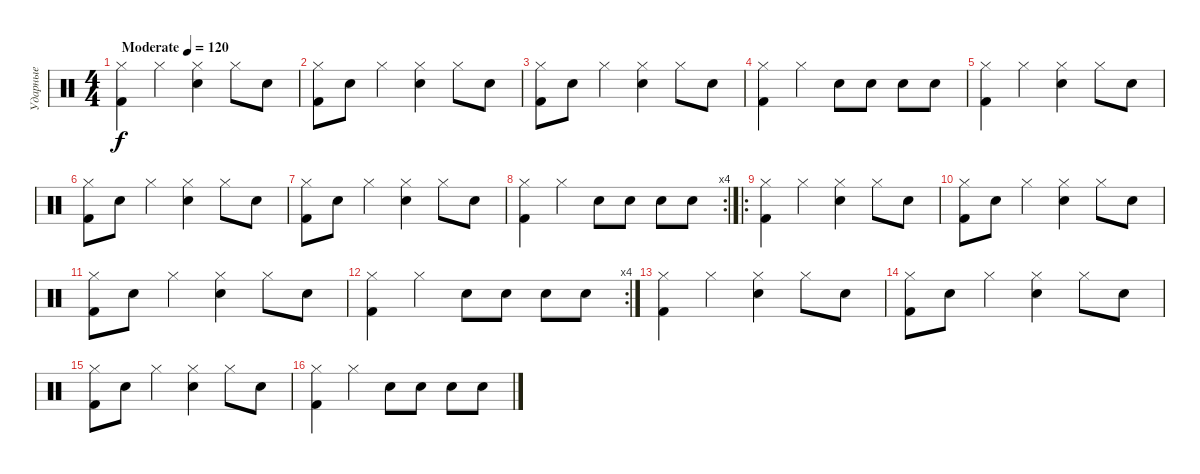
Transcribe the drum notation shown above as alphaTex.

\track ("Ударные" "Ударные") {instrument percussion}
\staff {score}
\articulation defaults
\ts (4 4)
\tempo (120 "Moderate")
\clef neutral
\ks c
("Kick (hit) 2" "Hi-Hat (closed)").4{dy f} "Hi-Hat (closed)".4 ("Electric Snare (hit)" "Hi-Hat (closed)").4 "Hi-Hat (closed)".8 "Electric Snare (hit)".8 |
("Kick (hit) 2" "Hi-Hat (closed)").8 "Electric Snare (hit)".8 "Hi-Hat (closed)".4 ("Hi-Hat (closed)" "Electric Snare (hit)").4 "Hi-Hat (closed)".8 "Electric Snare (hit)".8 |
("Kick (hit) 2" "Hi-Hat (closed)").8 "Electric Snare (hit)".8 "Hi-Hat (closed)".4 ("Hi-Hat (closed)" "Electric Snare (hit)").4 "Hi-Hat (closed)".8 "Electric Snare (hit)".8 |
("Kick (hit) 2" "Hi-Hat (closed)").4 "Hi-Hat (closed)".4 "Electric Snare (hit)".8 "Electric Snare (hit)".8 "Electric Snare (hit)".8 "Electric Snare (hit)".8 |
("Kick (hit) 2" "Hi-Hat (closed)").4 "Hi-Hat (closed)".4 ("Electric Snare (hit)" "Hi-Hat (closed)").4 "Hi-Hat (closed)".8 "Electric Snare (hit)".8 |
("Kick (hit) 2" "Hi-Hat (closed)").8 "Electric Snare (hit)".8 "Hi-Hat (closed)".4 ("Hi-Hat (closed)" "Electric Snare (hit)").4 "Hi-Hat (closed)".8 "Electric Snare (hit)".8 |
("Kick (hit) 2" "Hi-Hat (closed)").8 "Electric Snare (hit)".8 "Hi-Hat (closed)".4 ("Hi-Hat (closed)" "Electric Snare (hit)").4 "Hi-Hat (closed)".8 "Electric Snare (hit)".8 |
\rc 4
("Kick (hit) 2" "Hi-Hat (closed)").4 "Hi-Hat (closed)".4 "Electric Snare (hit)".8 "Electric Snare (hit)".8 "Electric Snare (hit)".8 "Electric Snare (hit)".8 |
\ro
("Kick (hit) 2" "Hi-Hat (closed)").4 "Hi-Hat (closed)".4 ("Electric Snare (hit)" "Hi-Hat (closed)").4 "Hi-Hat (closed)".8 "Electric Snare (hit)".8 |
("Kick (hit) 2" "Hi-Hat (closed)").8 "Electric Snare (hit)".8 "Hi-Hat (closed)".4 ("Hi-Hat (closed)" "Electric Snare (hit)").4 "Hi-Hat (closed)".8 "Electric Snare (hit)".8 |
("Kick (hit) 2" "Hi-Hat (closed)").8 "Electric Snare (hit)".8 "Hi-Hat (closed)".4 ("Hi-Hat (closed)" "Electric Snare (hit)").4 "Hi-Hat (closed)".8 "Electric Snare (hit)".8 |
\rc 4
("Kick (hit) 2" "Hi-Hat (closed)").4 "Hi-Hat (closed)".4 "Electric Snare (hit)".8 "Electric Snare (hit)".8 "Electric Snare (hit)".8 "Electric Snare (hit)".8 |
("Kick (hit) 2" "Hi-Hat (closed)").4 "Hi-Hat (closed)".4 ("Electric Snare (hit)" "Hi-Hat (closed)").4 "Hi-Hat (closed)".8 "Electric Snare (hit)".8 |
("Kick (hit) 2" "Hi-Hat (closed)").8 "Electric Snare (hit)".8 "Hi-Hat (closed)".4 ("Hi-Hat (closed)" "Electric Snare (hit)").4 "Hi-Hat (closed)".8 "Electric Snare (hit)".8 |
("Kick (hit) 2" "Hi-Hat (closed)").8 "Electric Snare (hit)".8 "Hi-Hat (closed)".4 ("Hi-Hat (closed)" "Electric Snare (hit)").4 "Hi-Hat (closed)".8 "Electric Snare (hit)".8 |
("Kick (hit) 2" "Hi-Hat (closed)").4 "Hi-Hat (closed)".4 "Electric Snare (hit)".8 "Electric Snare (hit)".8 "Electric Snare (hit)".8 "Electric Snare (hit)".8
